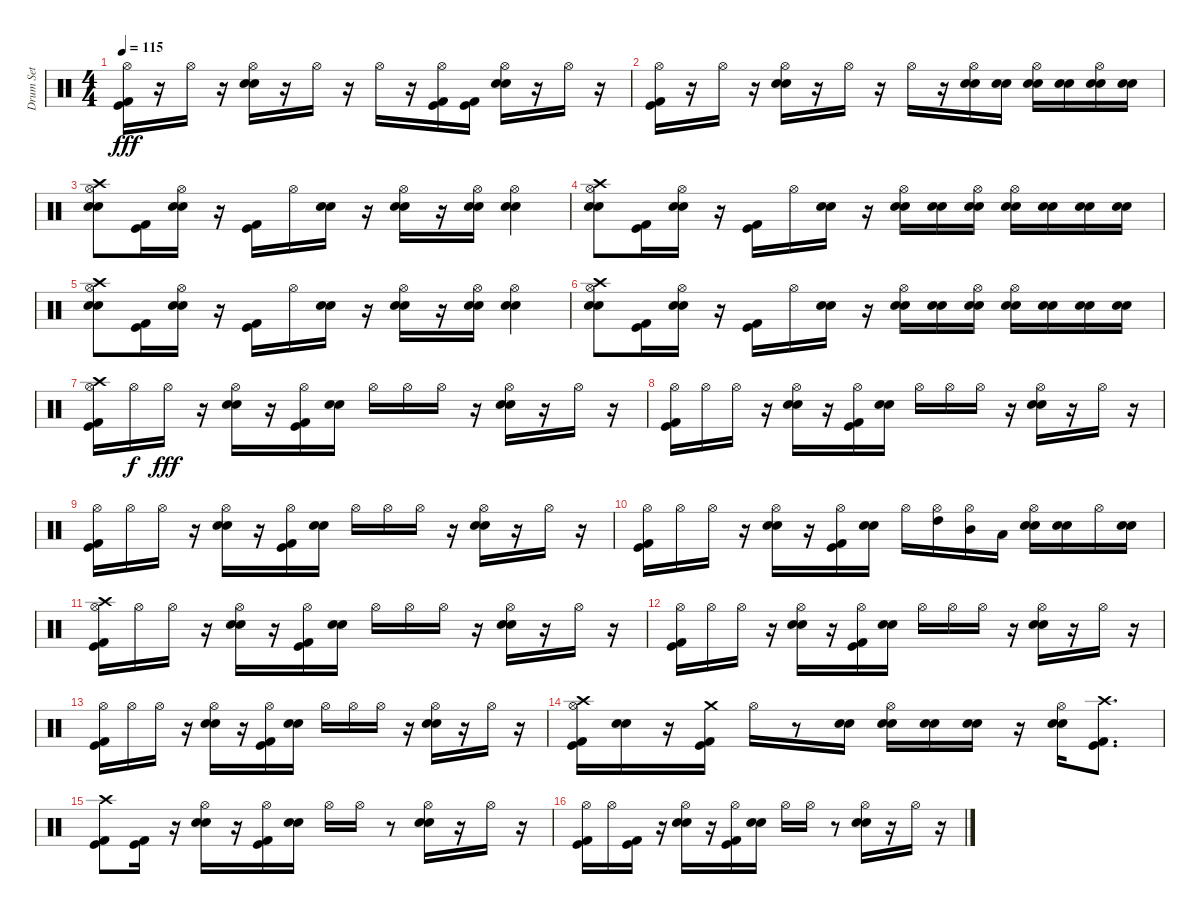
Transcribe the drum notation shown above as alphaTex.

\track ("Drum Set" "Drum Set") {instrument percussion}
\staff {score}
\articulation defaults
\ts (4 4)
\tempo 115
\clef neutral
\ks c
("Hi-Hat (open)" "Kick (hit)" "Kick (hit) 2").16{dy fff} r.16 "Hi-Hat (open)".16 r.16 ("Electric Snare (hit)" "Snare (hit) 2" "Hi-Hat (open)").16 r.16 "Hi-Hat (open)".16 r.16 "Hi-Hat (open)".16 r.16 ("Hi-Hat (open)" "Kick (hit)" "Kick (hit) 2").16 ("Kick (hit) 2" "Kick (hit)").16 ("Hi-Hat (open)" "Electric Snare (hit)" "Snare (hit) 2").16 r.16 "Hi-Hat (open)".16 r.16 |
("Kick (hit) 2" "Kick (hit)" "Hi-Hat (open)").16 r.16 "Hi-Hat (open)".16 r.16 ("Electric Snare (hit)" "Snare (hit) 2" "Hi-Hat (open)").16 r.16 "Hi-Hat (open)".16 r.16 "Hi-Hat (open)".16 r.16 ("Electric Snare (hit)" "Snare (hit) 2" "Hi-Hat (open)").16 ("Snare (hit) 2" "Electric Snare (hit)").16 ("Electric Snare (hit)" "Snare (hit) 2" "Hi-Hat (open)").16 ("Snare (hit) 2" "Electric Snare (hit)").16 ("Snare (hit) 2" "Electric Snare (hit)" "Hi-Hat (open)").16 ("Snare (hit) 2" "Electric Snare (hit)").16 |
("Crash high (hit)" "Hi-Hat (open)" "Snare (hit) 2" "Electric Snare (hit)").8 ("Kick (hit) 2" "Kick (hit)").16 ("Hi-Hat (open)" "Electric Snare (hit)" "Snare (hit) 2").16 r.16 ("Kick (hit)" "Kick (hit) 2").16 "Hi-Hat (open)".16 ("Electric Snare (hit)" "Snare (hit) 2").16 r.16 ("Electric Snare (hit)" "Snare (hit) 2" "Hi-Hat (open)").16 r.16 ("Hi-Hat (open)" "Electric Snare (hit)" "Snare (hit) 2").16 ("Hi-Hat (open)" "Electric Snare (hit)" "Snare (hit) 2").4 |
("Crash high (hit)" "Hi-Hat (open)" "Snare (hit) 2" "Electric Snare (hit)").8 ("Kick (hit) 2" "Kick (hit)").16 ("Hi-Hat (open)" "Electric Snare (hit)" "Snare (hit) 2").16 r.16 ("Kick (hit)" "Kick (hit) 2").16 "Hi-Hat (open)".16 ("Electric Snare (hit)" "Snare (hit) 2").16 r.16 ("Snare (hit) 2" "Electric Snare (hit)" "Hi-Hat (open)").16 ("Electric Snare (hit)" "Snare (hit) 2").16 ("Electric Snare (hit)" "Snare (hit) 2" "Hi-Hat (open)").16 ("Hi-Hat (open)" "Snare (hit) 2" "Electric Snare (hit)").16 ("Electric Snare (hit)" "Snare (hit) 2").16 ("Snare (hit) 2" "Electric Snare (hit)").16 ("Electric Snare (hit)" "Snare (hit) 2").16 |
("Crash high (hit)" "Snare (hit) 2" "Electric Snare (hit)" "Hi-Hat (open)").8 ("Kick (hit) 2" "Kick (hit)").16 ("Electric Snare (hit)" "Snare (hit) 2" "Hi-Hat (open)").16 r.16 ("Kick (hit)" "Kick (hit) 2").16 "Hi-Hat (open)".16 ("Electric Snare (hit)" "Snare (hit) 2").16 r.16 ("Electric Snare (hit)" "Snare (hit) 2" "Hi-Hat (open)").16 r.16 ("Electric Snare (hit)" "Snare (hit) 2" "Hi-Hat (open)").16 ("Electric Snare (hit)" "Snare (hit) 2" "Hi-Hat (open)").4 |
("Hi-Hat (open)" "Crash high (hit)" "Snare (hit) 2" "Electric Snare (hit)").8 ("Kick (hit) 2" "Kick (hit)").16 ("Hi-Hat (open)" "Electric Snare (hit)" "Snare (hit) 2").16 r.16 ("Kick (hit)" "Kick (hit) 2").16 "Hi-Hat (open)".16 ("Electric Snare (hit)" "Snare (hit) 2").16 r.16 ("Hi-Hat (open)" "Snare (hit) 2" "Electric Snare (hit)").16 ("Electric Snare (hit)" "Snare (hit) 2").16 ("Hi-Hat (open)" "Snare (hit) 2" "Electric Snare (hit)").16 ("Hi-Hat (open)" "Snare (hit) 2" "Electric Snare (hit)").16 ("Electric Snare (hit)" "Snare (hit) 2").16 ("Snare (hit) 2" "Electric Snare (hit)").16 ("Electric Snare (hit)" "Snare (hit) 2").16 |
("Crash high (hit)" "Hi-Hat (open)" "Kick (hit) 2" "Kick (hit)").16 "Hi-Hat (open)".16{dy f} "Hi-Hat (open)".16{dy fff} r.16 ("Hi-Hat (open)" "Electric Snare (hit)" "Snare (hit) 2").16 r.16 ("Hi-Hat (open)" "Kick (hit) 2" "Kick (hit)").16 ("Electric Snare (hit)" "Snare (hit) 2").16 "Hi-Hat (open)".16 "Hi-Hat (open)".16 "Hi-Hat (open)".16 r.16 ("Hi-Hat (open)" "Electric Snare (hit)" "Snare (hit) 2").16 r.16 "Hi-Hat (open)".16 r.16 |
("Hi-Hat (open)" "Kick (hit) 2" "Kick (hit)").16 "Hi-Hat (open)".16 "Hi-Hat (open)".16 r.16 ("Hi-Hat (open)" "Electric Snare (hit)" "Snare (hit) 2").16 r.16 ("Hi-Hat (open)" "Kick (hit) 2" "Kick (hit)").16 ("Electric Snare (hit)" "Snare (hit) 2").16 "Hi-Hat (open)".16 "Hi-Hat (open)".16 "Hi-Hat (open)".16 r.16 ("Hi-Hat (open)" "Electric Snare (hit)" "Snare (hit) 2").16 r.16 "Hi-Hat (open)".16 r.16 |
("Hi-Hat (open)" "Kick (hit) 2" "Kick (hit)").16 "Hi-Hat (open)".16 "Hi-Hat (open)".16 r.16 ("Hi-Hat (open)" "Electric Snare (hit)" "Snare (hit) 2").16 r.16 ("Hi-Hat (open)" "Kick (hit) 2" "Kick (hit)").16 ("Electric Snare (hit)" "Snare (hit) 2").16 "Hi-Hat (open)".16 "Hi-Hat (open)".16 "Hi-Hat (open)".16 r.16 ("Hi-Hat (open)" "Electric Snare (hit)" "Snare (hit) 2").16 r.16 "Hi-Hat (open)".16 r.16 |
("Hi-Hat (open)" "Kick (hit) 2" "Kick (hit)").16 "Hi-Hat (open)".16 "Hi-Hat (open)".16 r.16 ("Hi-Hat (open)" "Electric Snare (hit)" "Snare (hit) 2").16 r.16 ("Hi-Hat (open)" "Kick (hit) 2" "Kick (hit)").16 ("Electric Snare (hit)" "Snare (hit) 2").16 "Hi-Hat (open)".16 ("High Tom (hit)" "Hi-Hat (open)").16 ("Hi-Hat (open)" "Mid Tom (hit)").16 "Low Tom (hit)".16 ("Hi-Hat (open)" "Electric Snare (hit)" "Snare (hit) 2").16 ("Snare (hit) 2" "Electric Snare (hit)").16 "Hi-Hat (open)".16 ("Electric Snare (hit)" "Snare (hit) 2").16 |
("Crash high (hit)" "Hi-Hat (open)" "Kick (hit) 2" "Kick (hit)").16 "Hi-Hat (open)".16 "Hi-Hat (open)".16 r.16 ("Hi-Hat (open)" "Electric Snare (hit)" "Snare (hit) 2").16 r.16 ("Hi-Hat (open)" "Kick (hit) 2" "Kick (hit)").16 ("Electric Snare (hit)" "Snare (hit) 2").16 "Hi-Hat (open)".16 "Hi-Hat (open)".16 "Hi-Hat (open)".16 r.16 ("Hi-Hat (open)" "Electric Snare (hit)" "Snare (hit) 2").16 r.16 "Hi-Hat (open)".16 r.16 |
("Kick (hit) 2" "Kick (hit)" "Hi-Hat (open)").16 "Hi-Hat (open)".16 "Hi-Hat (open)".16 r.16 ("Hi-Hat (open)" "Snare (hit) 2" "Electric Snare (hit)").16 r.16 ("Kick (hit) 2" "Hi-Hat (open)" "Kick (hit)").16 ("Snare (hit) 2" "Electric Snare (hit)").16 "Hi-Hat (open)".16 "Hi-Hat (open)".16 "Hi-Hat (open)".16 r.16 ("Electric Snare (hit)" "Snare (hit) 2" "Hi-Hat (open)").16 r.16 "Hi-Hat (open)".16 r.16 |
("Hi-Hat (open)" "Kick (hit) 2" "Kick (hit)").16 "Hi-Hat (open)".16 "Hi-Hat (open)".16 r.16 ("Hi-Hat (open)" "Electric Snare (hit)" "Snare (hit) 2").16 r.16 ("Hi-Hat (open)" "Kick (hit) 2" "Kick (hit)").16 ("Electric Snare (hit)" "Snare (hit) 2").16 "Hi-Hat (open)".16 "Hi-Hat (open)".16 "Hi-Hat (open)".16 r.16 ("Hi-Hat (open)" "Electric Snare (hit)" "Snare (hit) 2").16 r.16 "Hi-Hat (open)".16 r.16 |
("Hi-Hat (open)" "Crash high (hit)" "Kick (hit) 2" "Kick (hit)").16 ("Electric Snare (hit)" "Snare (hit) 2").16 r.16 ("Crash medium (hit)" "Kick (hit) 2" "Kick (hit)").16 "Hi-Hat (open)".16 r.8 ("Electric Snare (hit)" "Snare (hit) 2").16 ("Hi-Hat (open)" "Electric Snare (hit)" "Snare (hit) 2").16 ("Snare (hit) 2" "Electric Snare (hit)").16 ("Snare (hit) 2" "Electric Snare (hit)").16 r.16 ("Hi-Hat (open)" "Snare (hit) 2" "Electric Snare (hit)").16 ("Crash high (hit)" "Kick (hit)" "Kick (hit) 2").8{d} |
("Crash high (hit)" "Kick (hit)" "Kick (hit) 2").8 ("Kick (hit)" "Kick (hit) 2").16 r.16 ("Hi-Hat (open)" "Electric Snare (hit)" "Snare (hit) 2").16 r.16 ("Hi-Hat (open)" "Kick (hit) 2" "Kick (hit)").16 ("Electric Snare (hit)" "Snare (hit) 2").16 "Hi-Hat (open)".16 "Hi-Hat (open)".16 r.8 ("Hi-Hat (open)" "Electric Snare (hit)" "Snare (hit) 2").16 r.16 "Hi-Hat (open)".16 r.16 |
("Hi-Hat (open)" "Kick (hit)" "Kick (hit) 2").16 "Hi-Hat (open)".16 ("Kick (hit)" "Kick (hit) 2").16 r.16 ("Hi-Hat (open)" "Electric Snare (hit)" "Snare (hit) 2").16 r.16 ("Hi-Hat (open)" "Kick (hit) 2" "Kick (hit)").16 ("Electric Snare (hit)" "Snare (hit) 2").16 "Hi-Hat (open)".16 "Hi-Hat (open)".16 r.8 ("Hi-Hat (open)" "Electric Snare (hit)" "Snare (hit) 2").16 r.16 "Hi-Hat (open)".16 r.16
